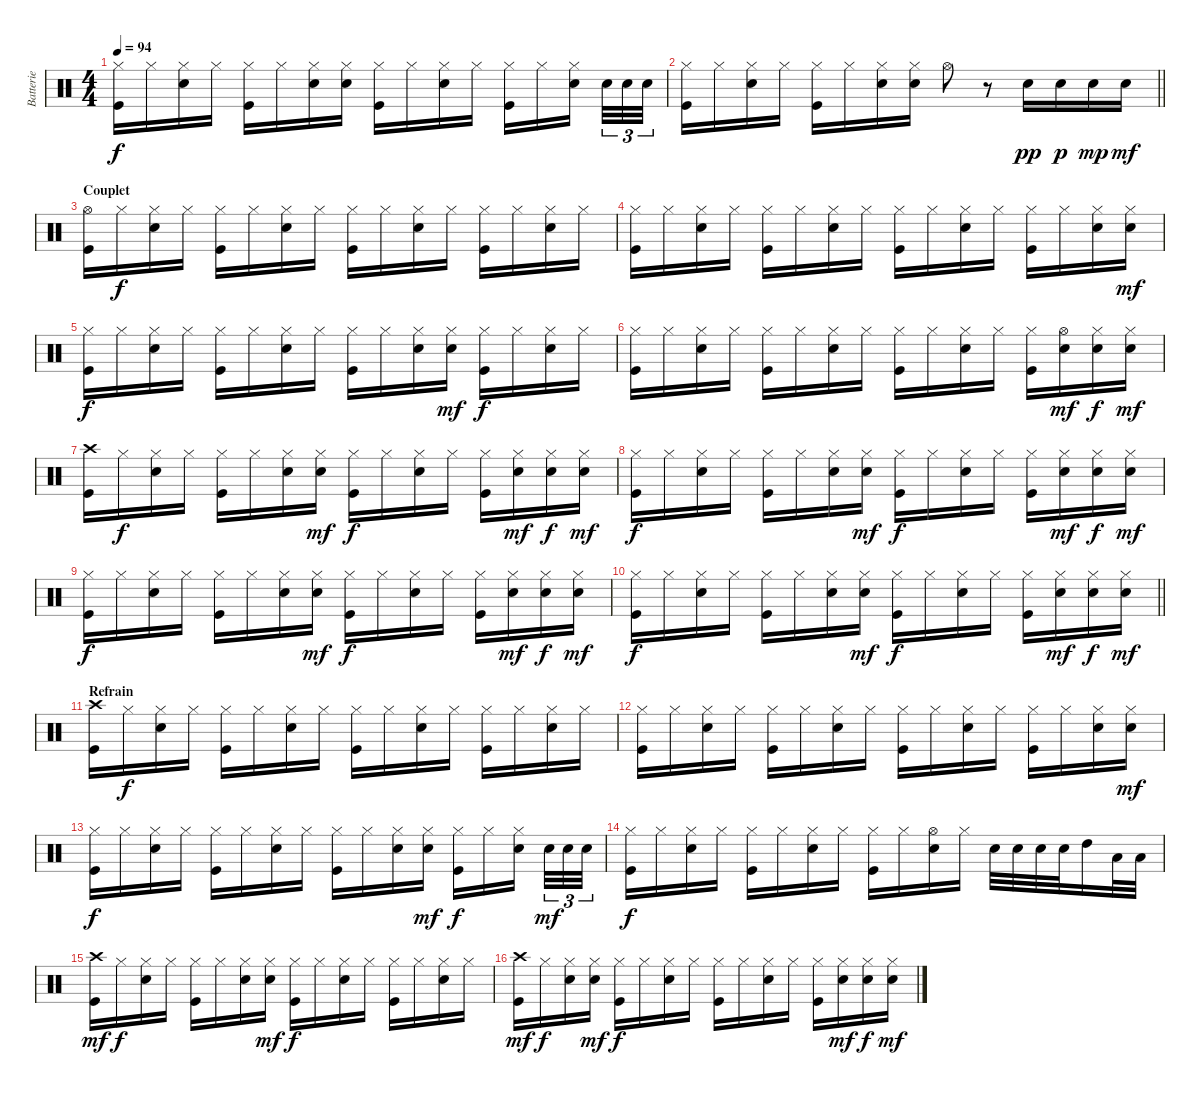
\track ("Batterie" "Batterie") {instrument percussion}
\staff {score}
\articulation defaults
\ts (4 4)
\tempo 94
\clef neutral
\ks c
("Hi-Hat (closed)" "Kick (hit)").16{dy f} "Hi-Hat (closed)".16 ("Hi-Hat (closed)" "Snare (hit) 2").16 "Hi-Hat (closed)".16 ("Hi-Hat (closed)" "Kick (hit)").16 "Hi-Hat (closed)".16 ("Hi-Hat (closed)" "Snare (hit) 2").16 ("Hi-Hat (closed)" "Snare (hit) 2").16 ("Hi-Hat (closed)" "Kick (hit)").16 "Hi-Hat (closed)".16 ("Hi-Hat (closed)" "Snare (hit) 2").16 "Hi-Hat (closed)".16 ("Hi-Hat (closed)" "Kick (hit)").16 "Hi-Hat (closed)".16 ("Hi-Hat (closed)" "Snare (hit) 2").16 "Snare (hit) 2".32{tu (3 2)} "Snare (hit) 2".32{tu (3 2)} "Snare (hit) 2".32{tu (3 2)} |
\barLineRight lightlight
("Hi-Hat (closed)" "Kick (hit)").16 "Hi-Hat (closed)".16 ("Hi-Hat (closed)" "Snare (hit) 2").16 "Hi-Hat (closed)".16 ("Hi-Hat (closed)" "Kick (hit)").16 "Hi-Hat (closed)".16 ("Hi-Hat (closed)" "Snare (hit) 2").16 ("Hi-Hat (closed)" "Snare (hit) 2").16 "Hi-Hat (open)".8 r.8 "Snare (hit) 2".16{dy pp} "Snare (hit) 2".16{dy p} "Snare (hit) 2".16{dy mp} "Snare (hit) 2".16{dy mf} |
\section ("" "Couplet")
("Hi-Hat (open)" "Kick (hit)").16 "Hi-Hat (closed)".16{dy f} ("Hi-Hat (closed)" "Snare (hit) 2").16 "Hi-Hat (closed)".16 ("Hi-Hat (closed)" "Kick (hit)").16 "Hi-Hat (closed)".16 ("Hi-Hat (closed)" "Snare (hit) 2").16 "Hi-Hat (closed)".16 ("Hi-Hat (closed)" "Kick (hit)").16 "Hi-Hat (closed)".16 ("Hi-Hat (closed)" "Snare (hit) 2").16 "Hi-Hat (closed)".16 ("Hi-Hat (closed)" "Kick (hit)").16 "Hi-Hat (closed)".16 ("Hi-Hat (closed)" "Snare (hit) 2").16 "Hi-Hat (closed)".16 |
("Hi-Hat (closed)" "Kick (hit)").16 "Hi-Hat (closed)".16 ("Hi-Hat (closed)" "Snare (hit) 2").16 "Hi-Hat (closed)".16 ("Hi-Hat (closed)" "Kick (hit)").16 "Hi-Hat (closed)".16 ("Hi-Hat (closed)" "Snare (hit) 2").16 "Hi-Hat (closed)".16 ("Hi-Hat (closed)" "Kick (hit)").16 "Hi-Hat (closed)".16 ("Hi-Hat (closed)" "Snare (hit) 2").16 "Hi-Hat (closed)".16 ("Hi-Hat (closed)" "Kick (hit)").16 "Hi-Hat (closed)".16 ("Hi-Hat (closed)" "Snare (hit) 2").16 ("Hi-Hat (closed)" "Snare (hit) 2").16{dy mf} |
("Hi-Hat (closed)" "Kick (hit)").16{dy f} "Hi-Hat (closed)".16 ("Hi-Hat (closed)" "Snare (hit) 2").16 "Hi-Hat (closed)".16 ("Hi-Hat (closed)" "Kick (hit)").16 "Hi-Hat (closed)".16 ("Hi-Hat (closed)" "Snare (hit) 2").16 "Hi-Hat (closed)".16 ("Hi-Hat (closed)" "Kick (hit)").16 "Hi-Hat (closed)".16 ("Hi-Hat (closed)" "Snare (hit) 2").16 ("Hi-Hat (closed)" "Snare (hit) 2").16{dy mf} ("Hi-Hat (closed)" "Kick (hit)").16{dy f} "Hi-Hat (closed)".16 ("Hi-Hat (closed)" "Snare (hit) 2").16 "Hi-Hat (closed)".16 |
("Hi-Hat (closed)" "Kick (hit)").16 "Hi-Hat (closed)".16 ("Hi-Hat (closed)" "Snare (hit) 2").16 "Hi-Hat (closed)".16 ("Hi-Hat (closed)" "Kick (hit)").16 "Hi-Hat (closed)".16 ("Hi-Hat (closed)" "Snare (hit) 2").16 "Hi-Hat (closed)".16 ("Hi-Hat (closed)" "Kick (hit)").16 "Hi-Hat (closed)".16 ("Hi-Hat (closed)" "Snare (hit) 2").16 "Hi-Hat (closed)".16 ("Hi-Hat (closed)" "Kick (hit)").16 ("Snare (hit) 2" "Hi-Hat (open)").16{dy mf} ("Hi-Hat (closed)" "Snare (hit) 2").16{dy f} ("Hi-Hat (closed)" "Snare (hit) 2").16{dy mf} |
("Crash high (hit)" "Kick (hit)").16 "Hi-Hat (closed)".16{dy f} ("Hi-Hat (closed)" "Snare (hit) 2").16 "Hi-Hat (closed)".16 ("Hi-Hat (closed)" "Kick (hit)").16 "Hi-Hat (closed)".16 ("Hi-Hat (closed)" "Snare (hit) 2").16 ("Hi-Hat (closed)" "Snare (hit) 2").16{dy mf} ("Hi-Hat (closed)" "Kick (hit)").16{dy f} "Hi-Hat (closed)".16 ("Hi-Hat (closed)" "Snare (hit) 2").16 "Hi-Hat (closed)".16 ("Hi-Hat (closed)" "Kick (hit)").16 ("Hi-Hat (closed)" "Snare (hit) 2").16{dy mf} ("Hi-Hat (closed)" "Snare (hit) 2").16{dy f} ("Hi-Hat (closed)" "Snare (hit) 2").16{dy mf} |
("Hi-Hat (closed)" "Kick (hit)").16{dy f} "Hi-Hat (closed)".16 ("Hi-Hat (closed)" "Snare (hit) 2").16 "Hi-Hat (closed)".16 ("Hi-Hat (closed)" "Kick (hit)").16 "Hi-Hat (closed)".16 ("Hi-Hat (closed)" "Snare (hit) 2").16 ("Hi-Hat (closed)" "Snare (hit) 2").16{dy mf} ("Hi-Hat (closed)" "Kick (hit)").16{dy f} "Hi-Hat (closed)".16 ("Hi-Hat (closed)" "Snare (hit) 2").16 "Hi-Hat (closed)".16 ("Hi-Hat (closed)" "Kick (hit)").16 ("Hi-Hat (closed)" "Snare (hit) 2").16{dy mf} ("Hi-Hat (closed)" "Snare (hit) 2").16{dy f} ("Hi-Hat (closed)" "Snare (hit) 2").16{dy mf} |
("Hi-Hat (closed)" "Kick (hit)").16{dy f} "Hi-Hat (closed)".16 ("Hi-Hat (closed)" "Snare (hit) 2").16 "Hi-Hat (closed)".16 ("Hi-Hat (closed)" "Kick (hit)").16 "Hi-Hat (closed)".16 ("Hi-Hat (closed)" "Snare (hit) 2").16 ("Hi-Hat (closed)" "Snare (hit) 2").16{dy mf} ("Hi-Hat (closed)" "Kick (hit)").16{dy f} "Hi-Hat (closed)".16 ("Hi-Hat (closed)" "Snare (hit) 2").16 "Hi-Hat (closed)".16 ("Hi-Hat (closed)" "Kick (hit)").16 ("Hi-Hat (closed)" "Snare (hit) 2").16{dy mf} ("Hi-Hat (closed)" "Snare (hit) 2").16{dy f} ("Hi-Hat (closed)" "Snare (hit) 2").16{dy mf} |
\barLineRight lightlight
("Hi-Hat (closed)" "Kick (hit)").16{dy f} "Hi-Hat (closed)".16 ("Hi-Hat (closed)" "Snare (hit) 2").16 "Hi-Hat (closed)".16 ("Hi-Hat (closed)" "Kick (hit)").16 "Hi-Hat (closed)".16 ("Hi-Hat (closed)" "Snare (hit) 2").16 ("Hi-Hat (closed)" "Snare (hit) 2").16{dy mf} ("Hi-Hat (closed)" "Kick (hit)").16{dy f} "Hi-Hat (closed)".16 ("Hi-Hat (closed)" "Snare (hit) 2").16 "Hi-Hat (closed)".16 ("Hi-Hat (closed)" "Kick (hit)").16 ("Hi-Hat (closed)" "Snare (hit) 2").16{dy mf} ("Hi-Hat (closed)" "Snare (hit) 2").16{dy f} ("Hi-Hat (closed)" "Snare (hit) 2").16{dy mf} |
\section ("" "Refrain")
("Crash high (hit)" "Kick (hit)").16 "Hi-Hat (closed)".16{dy f} ("Hi-Hat (closed)" "Snare (hit) 2").16 "Hi-Hat (closed)".16 ("Hi-Hat (closed)" "Kick (hit)").16 "Hi-Hat (closed)".16 ("Hi-Hat (closed)" "Snare (hit) 2").16 "Hi-Hat (closed)".16 ("Hi-Hat (closed)" "Kick (hit)").16 "Hi-Hat (closed)".16 ("Hi-Hat (closed)" "Snare (hit) 2").16 "Hi-Hat (closed)".16 ("Hi-Hat (closed)" "Kick (hit)").16 "Hi-Hat (closed)".16 ("Hi-Hat (closed)" "Snare (hit) 2").16 "Hi-Hat (closed)".16 |
("Hi-Hat (closed)" "Kick (hit)").16 "Hi-Hat (closed)".16 ("Hi-Hat (closed)" "Snare (hit) 2").16 "Hi-Hat (closed)".16 ("Hi-Hat (closed)" "Kick (hit)").16 "Hi-Hat (closed)".16 ("Hi-Hat (closed)" "Snare (hit) 2").16 "Hi-Hat (closed)".16 ("Hi-Hat (closed)" "Kick (hit)").16 "Hi-Hat (closed)".16 ("Hi-Hat (closed)" "Snare (hit) 2").16 "Hi-Hat (closed)".16 ("Hi-Hat (closed)" "Kick (hit)").16 "Hi-Hat (closed)".16 ("Hi-Hat (closed)" "Snare (hit) 2").16 ("Hi-Hat (closed)" "Snare (hit) 2").16{dy mf} |
("Hi-Hat (closed)" "Kick (hit)").16{dy f} "Hi-Hat (closed)".16 ("Hi-Hat (closed)" "Snare (hit) 2").16 "Hi-Hat (closed)".16 ("Hi-Hat (closed)" "Kick (hit)").16 "Hi-Hat (closed)".16 ("Hi-Hat (closed)" "Snare (hit) 2").16 "Hi-Hat (closed)".16 ("Hi-Hat (closed)" "Kick (hit)").16 "Hi-Hat (closed)".16 ("Hi-Hat (closed)" "Snare (hit) 2").16 ("Hi-Hat (closed)" "Snare (hit) 2").16{dy mf} ("Hi-Hat (closed)" "Kick (hit)").16{dy f} "Hi-Hat (closed)".16 ("Hi-Hat (closed)" "Snare (hit) 2").16 "Snare (hit) 2".32{tu (3 2) dy mf} "Snare (hit) 2".32{tu (3 2)} "Snare (hit) 2".32{tu (3 2)} |
("Hi-Hat (closed)" "Kick (hit)").16{dy f} "Hi-Hat (closed)".16 ("Hi-Hat (closed)" "Snare (hit) 2").16 "Hi-Hat (closed)".16 ("Hi-Hat (closed)" "Kick (hit)").16 "Hi-Hat (closed)".16 ("Hi-Hat (closed)" "Snare (hit) 2").16 "Hi-Hat (closed)".16 ("Hi-Hat (closed)" "Kick (hit)").16 "Hi-Hat (closed)".16 ("Hi-Hat (open)" "Snare (hit) 2").16 "Hi-Hat (closed)".16 "Snare (hit) 2".32 "Snare (hit) 2".32 "Snare (hit) 2".32 "Snare (hit) 2".32 "High Tom (hit)".16 "Low Floor Tom (hit)".32 "Low Floor Tom (hit)".32 |
("Crash high (hit)" "Kick (hit)").16{dy mf} "Hi-Hat (closed)".16{dy f} ("Hi-Hat (closed)" "Snare (hit) 2").16 "Hi-Hat (closed)".16 ("Hi-Hat (closed)" "Kick (hit)").16 "Hi-Hat (closed)".16 ("Hi-Hat (closed)" "Snare (hit) 2").16 ("Hi-Hat (closed)" "Snare (hit) 2").16{dy mf} ("Hi-Hat (closed)" "Kick (hit)").16{dy f} "Hi-Hat (closed)".16 ("Hi-Hat (closed)" "Snare (hit) 2").16 "Hi-Hat (closed)".16 ("Hi-Hat (closed)" "Kick (hit)").16 "Hi-Hat (closed)".16 ("Hi-Hat (closed)" "Snare (hit) 2").16 "Hi-Hat (closed)".16 |
("Crash high (hit)" "Kick (hit)").16{dy mf} "Hi-Hat (closed)".16{dy f} ("Hi-Hat (closed)" "Snare (hit) 2").16 ("Snare (hit) 2" "Hi-Hat (closed)").16{dy mf} ("Hi-Hat (closed)" "Kick (hit)").16{dy f} "Hi-Hat (closed)".16 ("Hi-Hat (closed)" "Snare (hit) 2").16 "Hi-Hat (closed)".16 ("Hi-Hat (closed)" "Kick (hit)").16 "Hi-Hat (closed)".16 ("Hi-Hat (closed)" "Snare (hit) 2").16 "Hi-Hat (closed)".16 ("Hi-Hat (closed)" "Kick (hit)").16 ("Hi-Hat (closed)" "Snare (hit) 2").16{dy mf} ("Hi-Hat (closed)" "Snare (hit) 2").16{dy f} ("Hi-Hat (closed)" "Snare (hit) 2").16{dy mf}
